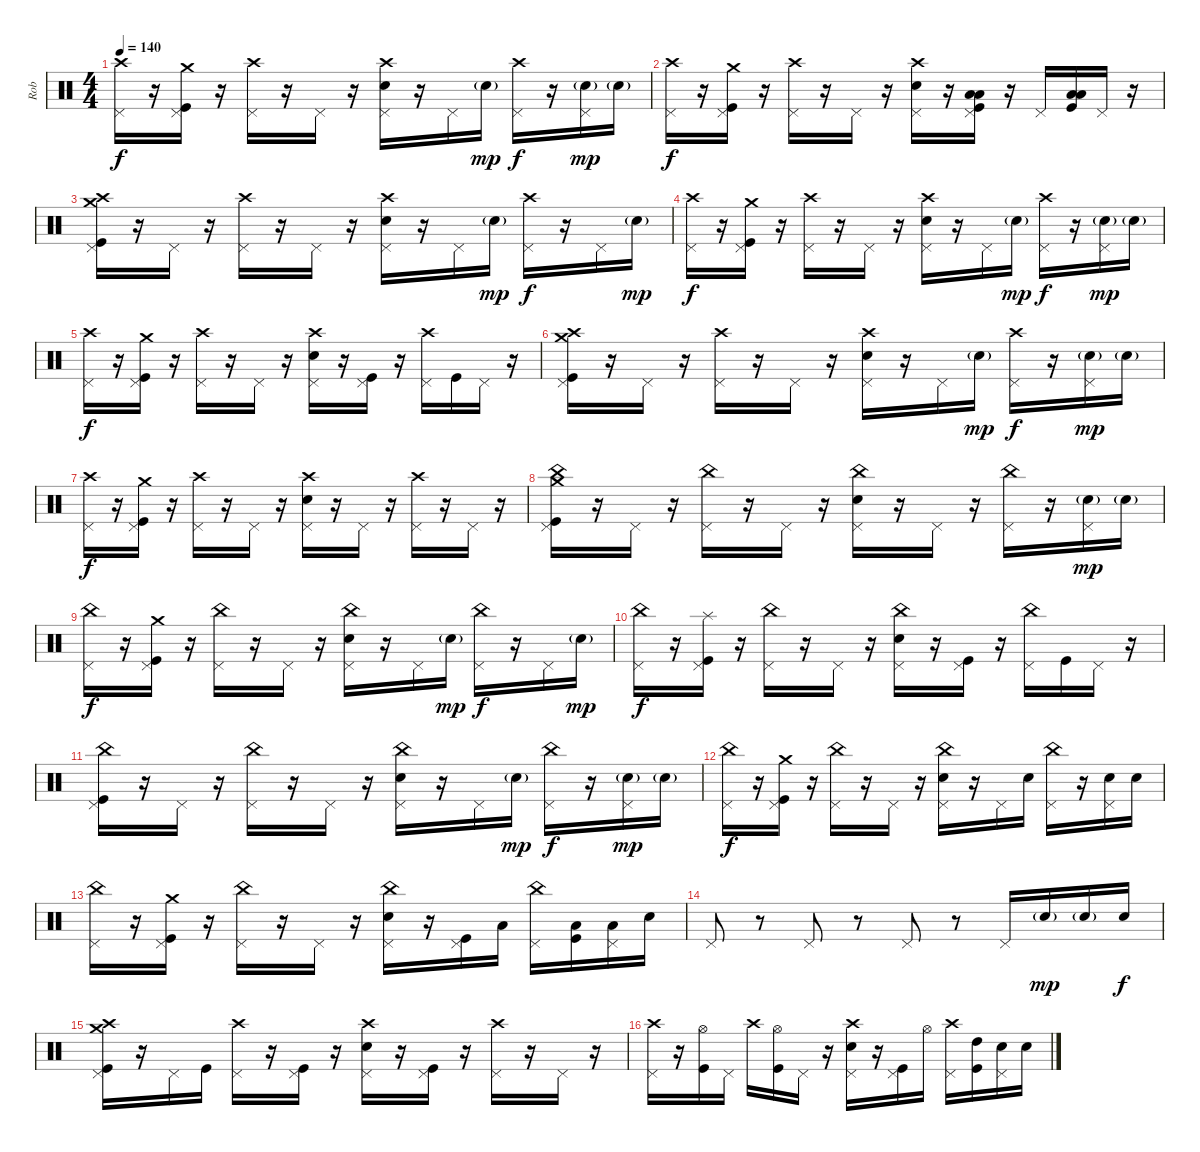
\track ("Rob" "Rob") {instrument percussion}
\staff {score}
\articulation defaults
\ts (4 4)
\tempo 140
\clef neutral
\ks c
("Crash high (hit)" "Pedal Hi-Hat (hit)").16{dy f} r.16 ("Crash medium (hit)" "Pedal Hi-Hat (hit)" "Kick (hit)").16 r.16 ("Crash high (hit)" "Pedal Hi-Hat (hit)").16 r.16 "Pedal Hi-Hat (hit)".16 r.16 ("Electric Snare (hit)" "Crash high (hit)" "Pedal Hi-Hat (hit)").16 r.16 "Pedal Hi-Hat (hit)".16 "Electric Snare (hit)"{g}.16{dy mp} ("Crash high (hit)" "Pedal Hi-Hat (hit)").16{dy f} r.16 ("Electric Snare (hit)"{g} "Pedal Hi-Hat (hit)").16{dy mp} "Electric Snare (hit)"{g}.16 |
("Crash high (hit)" "Pedal Hi-Hat (hit)").16{dy f} r.16 ("Crash medium (hit)" "Pedal Hi-Hat (hit)" "Kick (hit)").16 r.16 ("Crash high (hit)" "Pedal Hi-Hat (hit)").16 r.16 "Pedal Hi-Hat (hit)".16 r.16 ("Electric Snare (hit)" "Crash high (hit)" "Pedal Hi-Hat (hit)").16 r.16 ("Low Floor Tom (hit)" "Low Tom (hit)" "Pedal Hi-Hat (hit)" "Kick (hit)").16 r.16 "Pedal Hi-Hat (hit)".16 ("Low Floor Tom (hit)" "Low Tom (hit)" "Kick (hit)").16 "Pedal Hi-Hat (hit)".16 r.16 |
("Crash medium (hit)" "Crash high (hit)" "Pedal Hi-Hat (hit)" "Kick (hit)").16 r.16 "Pedal Hi-Hat (hit)".16 r.16 ("Crash high (hit)" "Pedal Hi-Hat (hit)").16 r.16 "Pedal Hi-Hat (hit)".16 r.16 ("Electric Snare (hit)" "Crash high (hit)" "Pedal Hi-Hat (hit)").16 r.16 "Pedal Hi-Hat (hit)".16 "Electric Snare (hit)"{g}.16{dy mp} ("Crash high (hit)" "Pedal Hi-Hat (hit)").16{dy f} r.16 "Pedal Hi-Hat (hit)".16 "Electric Snare (hit)"{g}.16{dy mp} |
("Crash high (hit)" "Pedal Hi-Hat (hit)").16{dy f} r.16 ("Crash medium (hit)" "Pedal Hi-Hat (hit)" "Kick (hit)").16 r.16 ("Crash high (hit)" "Pedal Hi-Hat (hit)").16 r.16 "Pedal Hi-Hat (hit)".16 r.16 ("Electric Snare (hit)" "Crash high (hit)" "Pedal Hi-Hat (hit)").16 r.16 "Pedal Hi-Hat (hit)".16 "Electric Snare (hit)"{g}.16{dy mp} ("Crash high (hit)" "Pedal Hi-Hat (hit)").16{dy f} r.16 ("Electric Snare (hit)"{g} "Pedal Hi-Hat (hit)").16{dy mp} "Electric Snare (hit)"{g}.16 |
("Crash high (hit)" "Pedal Hi-Hat (hit)").16{dy f} r.16 ("Crash medium (hit)" "Pedal Hi-Hat (hit)" "Kick (hit)").16 r.16 ("Crash high (hit)" "Pedal Hi-Hat (hit)").16 r.16 "Pedal Hi-Hat (hit)".16 r.16 ("Electric Snare (hit)" "Crash high (hit)" "Pedal Hi-Hat (hit)").16 r.16 ("Pedal Hi-Hat (hit)" "Kick (hit)").16 r.16 ("Crash high (hit)" "Pedal Hi-Hat (hit)").16 "Kick (hit)".16 "Pedal Hi-Hat (hit)".16 r.16 |
("Crash medium (hit)" "Crash high (hit)" "Pedal Hi-Hat (hit)" "Kick (hit)").16 r.16 "Pedal Hi-Hat (hit)".16 r.16 ("Crash high (hit)" "Pedal Hi-Hat (hit)").16 r.16 "Pedal Hi-Hat (hit)".16 r.16 ("Electric Snare (hit)" "Crash high (hit)" "Pedal Hi-Hat (hit)").16 r.16 "Pedal Hi-Hat (hit)".16 "Electric Snare (hit)"{g}.16{dy mp} ("Crash high (hit)" "Pedal Hi-Hat (hit)").16{dy f} r.16 ("Electric Snare (hit)"{g} "Pedal Hi-Hat (hit)").16{dy mp} "Electric Snare (hit)"{g}.16 |
("Crash high (hit)" "Pedal Hi-Hat (hit)").16{dy f} r.16 ("Crash medium (hit)" "Pedal Hi-Hat (hit)" "Kick (hit)").16 r.16 ("Crash high (hit)" "Pedal Hi-Hat (hit)").16 r.16 "Pedal Hi-Hat (hit)".16 r.16 ("Electric Snare (hit)" "Crash high (hit)" "Pedal Hi-Hat (hit)").16 r.16 "Pedal Hi-Hat (hit)".16 r.16 ("Crash high (hit)" "Pedal Hi-Hat (hit)").16 r.16 "Pedal Hi-Hat (hit)".16 r.16 |
("Crash medium (hit)" "China (hit)" "Pedal Hi-Hat (hit)" "Kick (hit)").16 r.16 "Pedal Hi-Hat (hit)".16 r.16 ("China (hit)" "Pedal Hi-Hat (hit)").16 r.16 "Pedal Hi-Hat (hit)".16 r.16 ("Electric Snare (hit)" "China (hit)" "Pedal Hi-Hat (hit)").16 r.16 "Pedal Hi-Hat (hit)".16 r.16 ("China (hit)" "Pedal Hi-Hat (hit)").16 r.16 ("Electric Snare (hit)"{g} "Pedal Hi-Hat (hit)").16{dy mp} "Electric Snare (hit)"{g}.16 |
("China (hit)" "Pedal Hi-Hat (hit)").16{dy f} r.16 ("Crash medium (hit)" "Pedal Hi-Hat (hit)" "Kick (hit)").16 r.16 ("China (hit)" "Pedal Hi-Hat (hit)").16 r.16 "Pedal Hi-Hat (hit)".16 r.16 ("Electric Snare (hit)" "China (hit)" "Pedal Hi-Hat (hit)").16 r.16 "Pedal Hi-Hat (hit)".16 "Electric Snare (hit)"{g}.16{dy mp} ("China (hit)" "Pedal Hi-Hat (hit)").16{dy f} r.16 "Pedal Hi-Hat (hit)".16 "Electric Snare (hit)"{g}.16{dy mp} |
("China (hit)" "Pedal Hi-Hat (hit)").16{dy f} r.16 ("Splash (hit)" "Pedal Hi-Hat (hit)" "Kick (hit)").16 r.16 ("China (hit)" "Pedal Hi-Hat (hit)").16 r.16 "Pedal Hi-Hat (hit)".16 r.16 ("Electric Snare (hit)" "China (hit)" "Pedal Hi-Hat (hit)").16 r.16 ("Pedal Hi-Hat (hit)" "Kick (hit)").16 r.16 ("China (hit)" "Pedal Hi-Hat (hit)").16 "Kick (hit)".16 "Pedal Hi-Hat (hit)".16 r.16 |
("China (hit)" "Pedal Hi-Hat (hit)" "Kick (hit)").16 r.16 "Pedal Hi-Hat (hit)".16 r.16 ("China (hit)" "Pedal Hi-Hat (hit)").16 r.16 "Pedal Hi-Hat (hit)".16 r.16 ("Electric Snare (hit)" "China (hit)" "Pedal Hi-Hat (hit)").16 r.16 "Pedal Hi-Hat (hit)".16 "Electric Snare (hit)"{g}.16{dy mp} ("China (hit)" "Pedal Hi-Hat (hit)").16{dy f} r.16 ("Electric Snare (hit)"{g} "Pedal Hi-Hat (hit)").16{dy mp} "Electric Snare (hit)"{g}.16 |
("China (hit)" "Pedal Hi-Hat (hit)").16{dy f} r.16 ("Crash medium (hit)" "Pedal Hi-Hat (hit)" "Kick (hit)").16 r.16 ("China (hit)" "Pedal Hi-Hat (hit)").16 r.16 "Pedal Hi-Hat (hit)".16 r.16 ("Electric Snare (hit)" "China (hit)" "Pedal Hi-Hat (hit)").16 r.16 "Pedal Hi-Hat (hit)".16 "Electric Snare (hit)".16 ("China (hit)" "Pedal Hi-Hat (hit)").16 r.16 ("Electric Snare (hit)" "Pedal Hi-Hat (hit)").16 "Electric Snare (hit)".16 |
("China (hit)" "Pedal Hi-Hat (hit)").16 r.16 ("Crash medium (hit)" "Pedal Hi-Hat (hit)" "Kick (hit)").16 r.16 ("China (hit)" "Pedal Hi-Hat (hit)").16 r.16 "Pedal Hi-Hat (hit)".16 r.16 ("Electric Snare (hit)" "China (hit)" "Pedal Hi-Hat (hit)").16 r.16 ("Pedal Hi-Hat (hit)" "Kick (hit)").16 "Low Tom (hit)".16 ("China (hit)" "Pedal Hi-Hat (hit)").16 ("Low Tom (hit)" "Kick (hit)").16 ("Low Floor Tom (hit)" "Pedal Hi-Hat (hit)").16 "Electric Snare (hit)".16 |
"Pedal Hi-Hat (hit)".8 r.8 "Pedal Hi-Hat (hit)".8 r.8 "Pedal Hi-Hat (hit)".8 r.8 "Pedal Hi-Hat (hit)".16 "Electric Snare (hit)"{g}.16{dy mp} "Electric Snare (hit)"{g}.16 "Electric Snare (hit)".16{dy f} |
("Crash medium (hit)" "Crash high (hit)" "Pedal Hi-Hat (hit)" "Kick (hit)").16 r.16 "Pedal Hi-Hat (hit)".16 "Kick (hit)".16 ("Crash high (hit)" "Pedal Hi-Hat (hit)").16 r.16 ("Pedal Hi-Hat (hit)" "Kick (hit)").16 r.16 ("Electric Snare (hit)" "Crash high (hit)" "Pedal Hi-Hat (hit)").16 r.16 ("Pedal Hi-Hat (hit)" "Kick (hit)").16 r.16 ("Crash high (hit)" "Pedal Hi-Hat (hit)").16 r.16 "Pedal Hi-Hat (hit)".16 r.16 |
("Crash high (hit)" "Pedal Hi-Hat (hit)").16 r.16 ("Hi-Hat (open)" "Kick (hit)").16 "Pedal Hi-Hat (hit)".16 "Crash high (hit)".16 ("Hi-Hat (open)" "Kick (hit)").16 "Pedal Hi-Hat (hit)".16 r.16 ("Electric Snare (hit)" "Crash high (hit)" "Pedal Hi-Hat (hit)").16 r.16 ("Pedal Hi-Hat (hit)" "Kick (hit)").16 "Hi-Hat (open)".16 ("Crash high (hit)" "Pedal Hi-Hat (hit)").16 ("High Tom (hit)" "Kick (hit)").16 ("Electric Snare (hit)" "Pedal Hi-Hat (hit)").16 "Electric Snare (hit)".16
